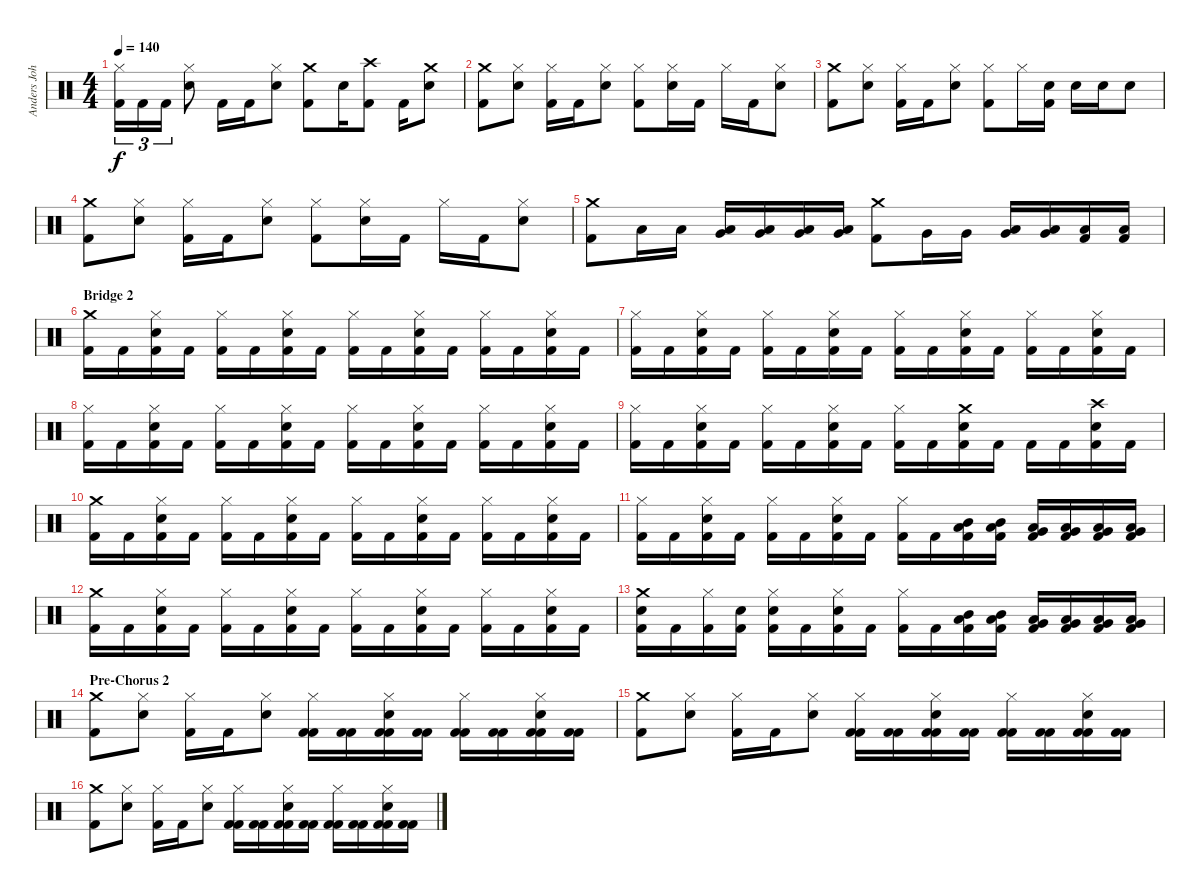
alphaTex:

\track ("Anders Johansson :: Drums" "Anders Joh") {instrument percussion}
\staff {score}
\articulation defaults
\ts (4 4)
\tempo 140
\clef neutral
\ks c
("Hi-Hat (closed)" "Kick (hit) 2").16{tu (3 2) dy f} "Kick (hit) 2".16{tu (3 2)} "Kick (hit) 2".16{tu (3 2)} ("Hi-Hat (closed)" "Snare (hit) 2").8 "Kick (hit) 2".16 "Kick (hit) 2".16 ("Hi-Hat (closed)" "Snare (hit) 2").8 ("Crash medium (hit)" "Kick (hit) 2").8 "Snare (hit) 2".16 ("Crash high (hit)" "Kick (hit) 2").8 "Kick (hit) 2".16 ("Crash medium (hit)" "Snare (hit) 2").8 |
("Crash medium (hit)" "Kick (hit) 2").8 ("Hi-Hat (closed)" "Snare (hit) 2").8 ("Hi-Hat (closed)" "Kick (hit) 2").16 "Kick (hit) 2".16 ("Hi-Hat (closed)" "Snare (hit) 2").8 ("Hi-Hat (closed)" "Kick (hit) 2").8 ("Hi-Hat (closed)" "Snare (hit) 2").16 "Kick (hit) 2".16 "Hi-Hat (closed)".16 "Kick (hit) 2".16 ("Hi-Hat (closed)" "Snare (hit) 2").8 |
("Crash medium (hit)" "Kick (hit) 2").8 ("Hi-Hat (closed)" "Snare (hit) 2").8 ("Hi-Hat (closed)" "Kick (hit) 2").16 "Kick (hit) 2".16 ("Hi-Hat (closed)" "Snare (hit) 2").8 ("Hi-Hat (closed)" "Kick (hit) 2").8 "Hi-Hat (closed)".16 ("Snare (hit) 2" "Kick (hit) 2").16 "Snare (hit) 2".16 "Snare (hit) 2".16 "Snare (hit) 2".8 |
("Crash medium (hit)" "Kick (hit) 2").8 ("Hi-Hat (closed)" "Snare (hit) 2").8 ("Hi-Hat (closed)" "Kick (hit) 2").16 "Kick (hit) 2".16 ("Hi-Hat (closed)" "Snare (hit) 2").8 ("Hi-Hat (closed)" "Kick (hit) 2").8 ("Hi-Hat (closed)" "Snare (hit) 2").16 "Kick (hit) 2".16 "Hi-Hat (closed)".16 "Kick (hit) 2".16 ("Hi-Hat (closed)" "Snare (hit) 2").8 |
("Crash medium (hit)" "Kick (hit) 2").8 "Low Tom (hit)".16 "Low Tom (hit)".16 ("Low Tom (hit)" "Very Low Tom (hit)").16 ("Low Tom (hit)" "Very Low Tom (hit)").16 ("Very Low Tom (hit)" "Low Floor Tom (hit)").16 ("Very Low Tom (hit)" "Low Floor Tom (hit)").16 ("Crash medium (hit)" "Kick (hit) 2").8 "Very Low Tom (hit)".16 "Very Low Tom (hit)".16 ("Very Low Tom (hit)" "Low Floor Tom (hit)").16 ("Very Low Tom (hit)" "Low Floor Tom (hit)").16 ("Low Floor Tom (hit)" "Kick (hit) 2").16 ("Low Floor Tom (hit)" "Kick (hit) 2").16 |
\section ("" "Bridge 2")
("Crash medium (hit)" "Kick (hit) 2").16 "Kick (hit) 2".16 ("Hi-Hat (closed)" "Snare (hit) 2" "Kick (hit) 2").16 "Kick (hit) 2".16 ("Hi-Hat (closed)" "Kick (hit) 2").16 "Kick (hit) 2".16 ("Hi-Hat (closed)" "Snare (hit) 2" "Kick (hit) 2").16 "Kick (hit) 2".16 ("Hi-Hat (closed)" "Kick (hit) 2").16 "Kick (hit) 2".16 ("Hi-Hat (closed)" "Snare (hit) 2" "Kick (hit) 2").16 "Kick (hit) 2".16 ("Hi-Hat (closed)" "Kick (hit) 2").16 "Kick (hit) 2".16 ("Hi-Hat (closed)" "Snare (hit) 2" "Kick (hit) 2").16 "Kick (hit) 2".16 |
("Hi-Hat (closed)" "Kick (hit) 2").16 "Kick (hit) 2".16 ("Hi-Hat (closed)" "Snare (hit) 2" "Kick (hit) 2").16 "Kick (hit) 2".16 ("Hi-Hat (closed)" "Kick (hit) 2").16 "Kick (hit) 2".16 ("Hi-Hat (closed)" "Snare (hit) 2" "Kick (hit) 2").16 "Kick (hit) 2".16 ("Hi-Hat (closed)" "Kick (hit) 2").16 "Kick (hit) 2".16 ("Hi-Hat (closed)" "Snare (hit) 2" "Kick (hit) 2").16 "Kick (hit) 2".16 ("Hi-Hat (closed)" "Kick (hit) 2").16 "Kick (hit) 2".16 ("Hi-Hat (closed)" "Snare (hit) 2" "Kick (hit) 2").16 "Kick (hit) 2".16 |
("Hi-Hat (closed)" "Kick (hit) 2").16 "Kick (hit) 2".16 ("Hi-Hat (closed)" "Snare (hit) 2" "Kick (hit) 2").16 "Kick (hit) 2".16 ("Hi-Hat (closed)" "Kick (hit) 2").16 "Kick (hit) 2".16 ("Hi-Hat (closed)" "Snare (hit) 2" "Kick (hit) 2").16 "Kick (hit) 2".16 ("Hi-Hat (closed)" "Kick (hit) 2").16 "Kick (hit) 2".16 ("Hi-Hat (closed)" "Snare (hit) 2" "Kick (hit) 2").16 "Kick (hit) 2".16 ("Hi-Hat (closed)" "Kick (hit) 2").16 "Kick (hit) 2".16 ("Hi-Hat (closed)" "Snare (hit) 2" "Kick (hit) 2").16 "Kick (hit) 2".16 |
("Hi-Hat (closed)" "Kick (hit) 2").16 "Kick (hit) 2".16 ("Hi-Hat (closed)" "Snare (hit) 2" "Kick (hit) 2").16 "Kick (hit) 2".16 ("Hi-Hat (closed)" "Kick (hit) 2").16 "Kick (hit) 2".16 ("Hi-Hat (closed)" "Snare (hit) 2" "Kick (hit) 2").16 "Kick (hit) 2".16 ("Hi-Hat (closed)" "Kick (hit) 2").16 "Kick (hit) 2".16 ("Crash medium (hit)" "Snare (hit) 2" "Kick (hit) 2").16 "Kick (hit) 2".16 "Kick (hit) 2".16 "Kick (hit) 2".16 ("Crash high (hit)" "Snare (hit) 2" "Kick (hit) 2").16 "Kick (hit) 2".16 |
("Crash medium (hit)" "Kick (hit) 2").16 "Kick (hit) 2".16 ("Hi-Hat (closed)" "Snare (hit) 2" "Kick (hit) 2").16 "Kick (hit) 2".16 ("Hi-Hat (closed)" "Kick (hit) 2").16 "Kick (hit) 2".16 ("Hi-Hat (closed)" "Snare (hit) 2" "Kick (hit) 2").16 "Kick (hit) 2".16 ("Hi-Hat (closed)" "Kick (hit) 2").16 "Kick (hit) 2".16 ("Hi-Hat (closed)" "Snare (hit) 2" "Kick (hit) 2").16 "Kick (hit) 2".16 ("Hi-Hat (closed)" "Kick (hit) 2").16 "Kick (hit) 2".16 ("Hi-Hat (closed)" "Snare (hit) 2" "Kick (hit) 2").16 "Kick (hit) 2".16 |
("Hi-Hat (closed)" "Kick (hit) 2").16 "Kick (hit) 2".16 ("Hi-Hat (closed)" "Snare (hit) 2" "Kick (hit) 2").16 "Kick (hit) 2".16 ("Hi-Hat (closed)" "Kick (hit) 2").16 "Kick (hit) 2".16 ("Hi-Hat (closed)" "Snare (hit) 2" "Kick (hit) 2").16 "Kick (hit) 2".16 ("Hi-Hat (closed)" "Kick (hit) 2").16 "Kick (hit) 2".16 ("Mid Tom (hit)" "Low Tom (hit)" "Kick (hit) 2").16 ("Mid Tom (hit)" "Low Tom (hit)" "Kick (hit) 2").16 ("Low Tom (hit)" "Very Low Tom (hit)" "Kick (hit) 2").16 ("Low Tom (hit)" "Very Low Tom (hit)" "Kick (hit) 2").16 ("Very Low Tom (hit)" "Low Floor Tom (hit)" "Kick (hit) 2").16 ("Very Low Tom (hit)" "Low Floor Tom (hit)" "Kick (hit) 2").16 |
("Crash medium (hit)" "Kick (hit) 2").16 "Kick (hit) 2".16 ("Hi-Hat (closed)" "Snare (hit) 2" "Kick (hit) 2").16 "Kick (hit) 2".16 ("Hi-Hat (closed)" "Kick (hit) 2").16 "Kick (hit) 2".16 ("Hi-Hat (closed)" "Snare (hit) 2" "Kick (hit) 2").16 "Kick (hit) 2".16 ("Hi-Hat (closed)" "Kick (hit) 2").16 "Kick (hit) 2".16 ("Hi-Hat (closed)" "Snare (hit) 2" "Kick (hit) 2").16 "Kick (hit) 2".16 ("Hi-Hat (closed)" "Kick (hit) 2").16 "Kick (hit) 2".16 ("Hi-Hat (closed)" "Snare (hit) 2" "Kick (hit) 2").16 "Kick (hit) 2".16 |
("Crash medium (hit)" "Snare (hit) 2" "Kick (hit) 2").16 "Kick (hit) 2".16 ("Hi-Hat (closed)" "Kick (hit) 2").16 ("Snare (hit) 2" "Kick (hit) 2").16 ("Hi-Hat (closed)" "Snare (hit) 2" "Kick (hit) 2").16 "Kick (hit) 2".16 ("Hi-Hat (closed)" "Snare (hit) 2" "Kick (hit) 2").16 "Kick (hit) 2".16 ("Hi-Hat (closed)" "Kick (hit) 2").16 "Kick (hit) 2".16 ("Mid Tom (hit)" "Low Tom (hit)" "Kick (hit) 2").16 ("Mid Tom (hit)" "Low Tom (hit)" "Kick (hit) 2").16 ("Low Tom (hit)" "Very Low Tom (hit)" "Kick (hit) 2").16 ("Low Tom (hit)" "Very Low Tom (hit)" "Kick (hit) 2").16 ("Very Low Tom (hit)" "Low Floor Tom (hit)" "Kick (hit) 2").16 ("Very Low Tom (hit)" "Low Floor Tom (hit)" "Kick (hit) 2").16 |
\section ("" "Pre-Chorus 2")
("Crash medium (hit)" "Kick (hit) 2").8 ("Hi-Hat (closed)" "Snare (hit) 2").8 ("Hi-Hat (closed)" "Kick (hit) 2").16 "Kick (hit) 2".16 ("Hi-Hat (closed)" "Snare (hit) 2").8 ("Hi-Hat (closed)" "Kick (hit) 2" "Kick (hit) 2").16 ("Kick (hit) 2" "Kick (hit) 2").16 ("Hi-Hat (closed)" "Snare (hit) 2" "Kick (hit) 2" "Kick (hit) 2").16 ("Kick (hit) 2" "Kick (hit) 2").16 ("Hi-Hat (closed)" "Kick (hit) 2" "Kick (hit) 2").16 ("Kick (hit) 2" "Kick (hit) 2").16 ("Hi-Hat (closed)" "Snare (hit) 2" "Kick (hit) 2" "Kick (hit) 2").16 ("Kick (hit) 2" "Kick (hit) 2").16 |
("Crash medium (hit)" "Kick (hit) 2").8 ("Hi-Hat (closed)" "Snare (hit) 2").8 ("Hi-Hat (closed)" "Kick (hit) 2").16 "Kick (hit) 2".16 ("Hi-Hat (closed)" "Snare (hit) 2").8 ("Hi-Hat (closed)" "Kick (hit) 2" "Kick (hit) 2").16 ("Kick (hit) 2" "Kick (hit) 2").16 ("Hi-Hat (closed)" "Snare (hit) 2" "Kick (hit) 2" "Kick (hit) 2").16 ("Kick (hit) 2" "Kick (hit) 2").16 ("Hi-Hat (closed)" "Kick (hit) 2" "Kick (hit) 2").16 ("Kick (hit) 2" "Kick (hit) 2").16 ("Hi-Hat (closed)" "Snare (hit) 2" "Kick (hit) 2" "Kick (hit) 2").16 ("Kick (hit) 2" "Kick (hit) 2").16 |
("Crash medium (hit)" "Kick (hit) 2").8 ("Hi-Hat (closed)" "Snare (hit) 2").8 ("Hi-Hat (closed)" "Kick (hit) 2").16 "Kick (hit) 2".16 ("Hi-Hat (closed)" "Snare (hit) 2").8 ("Hi-Hat (closed)" "Kick (hit) 2" "Kick (hit) 2").16 ("Kick (hit) 2" "Kick (hit) 2").16 ("Hi-Hat (closed)" "Snare (hit) 2" "Kick (hit) 2" "Kick (hit) 2").16 ("Kick (hit) 2" "Kick (hit) 2").16 ("Hi-Hat (closed)" "Kick (hit) 2" "Kick (hit) 2").16 ("Kick (hit) 2" "Kick (hit) 2").16 ("Hi-Hat (closed)" "Snare (hit) 2" "Kick (hit) 2" "Kick (hit) 2").16 ("Kick (hit) 2" "Kick (hit) 2").16
